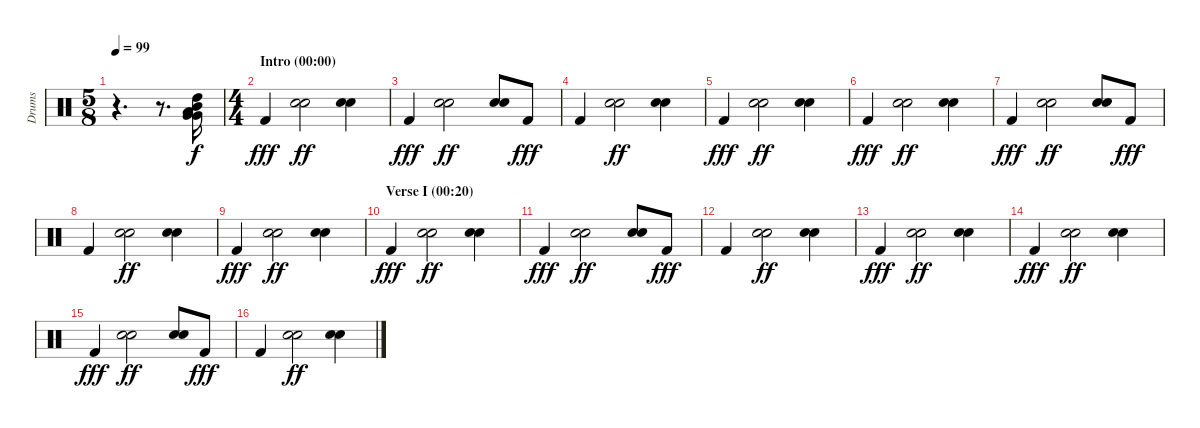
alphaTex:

\track ("Drums" "Drums") {instrument percussion}
\staff {score}
\articulation defaults
\ts (5 8)
\tempo 99
\clef neutral
\ks c
r.4{d dy f} r.8{d} ("Mid Tom (hit)" "Low Tom (hit)" "Very Low Tom (hit)" "Very Low Tom (hit)" "High Tom (hit)").16 |
\ts (4 4)
\section ("" "Intro (00:00)")
"Kick (hit) 2".4{dy fff} ("Snare (hit) 2" "Hand Clap (hit)").2{dy ff} ("Snare (hit) 2" "Hand Clap (hit)").4 |
"Kick (hit) 2".4{dy fff} ("Snare (hit) 2" "Hand Clap (hit)").2{dy ff} ("Snare (hit) 2" "Hand Clap (hit)").8 "Kick (hit) 2".8{dy fff} |
"Kick (hit) 2".4 ("Snare (hit) 2" "Hand Clap (hit)").2{dy ff} ("Snare (hit) 2" "Hand Clap (hit)").4 |
"Kick (hit) 2".4{dy fff} ("Snare (hit) 2" "Hand Clap (hit)").2{dy ff} ("Snare (hit) 2" "Hand Clap (hit)").4 |
"Kick (hit) 2".4{dy fff} ("Snare (hit) 2" "Hand Clap (hit)").2{dy ff} ("Snare (hit) 2" "Hand Clap (hit)").4 |
"Kick (hit) 2".4{dy fff} ("Snare (hit) 2" "Hand Clap (hit)").2{dy ff} ("Snare (hit) 2" "Hand Clap (hit)").8 "Kick (hit) 2".8{dy fff} |
"Kick (hit) 2".4 ("Snare (hit) 2" "Hand Clap (hit)").2{dy ff} ("Snare (hit) 2" "Hand Clap (hit)").4 |
"Kick (hit) 2".4{dy fff} ("Snare (hit) 2" "Hand Clap (hit)").2{dy ff} ("Snare (hit) 2" "Hand Clap (hit)").4 |
\section ("" "Verse I (00:20)")
"Kick (hit) 2".4{dy fff} ("Snare (hit) 2" "Hand Clap (hit)").2{dy ff} ("Snare (hit) 2" "Hand Clap (hit)").4 |
"Kick (hit) 2".4{dy fff} ("Snare (hit) 2" "Hand Clap (hit)").2{dy ff} ("Snare (hit) 2" "Hand Clap (hit)").8 "Kick (hit) 2".8{dy fff} |
"Kick (hit) 2".4 ("Snare (hit) 2" "Hand Clap (hit)").2{dy ff} ("Snare (hit) 2" "Hand Clap (hit)").4 |
"Kick (hit) 2".4{dy fff} ("Snare (hit) 2" "Hand Clap (hit)").2{dy ff} ("Snare (hit) 2" "Hand Clap (hit)").4 |
"Kick (hit) 2".4{dy fff} ("Snare (hit) 2" "Hand Clap (hit)").2{dy ff} ("Snare (hit) 2" "Hand Clap (hit)").4 |
"Kick (hit) 2".4{dy fff} ("Snare (hit) 2" "Hand Clap (hit)").2{dy ff} ("Snare (hit) 2" "Hand Clap (hit)").8 "Kick (hit) 2".8{dy fff} |
"Kick (hit) 2".4 ("Snare (hit) 2" "Hand Clap (hit)").2{dy ff} ("Snare (hit) 2" "Hand Clap (hit)").4
